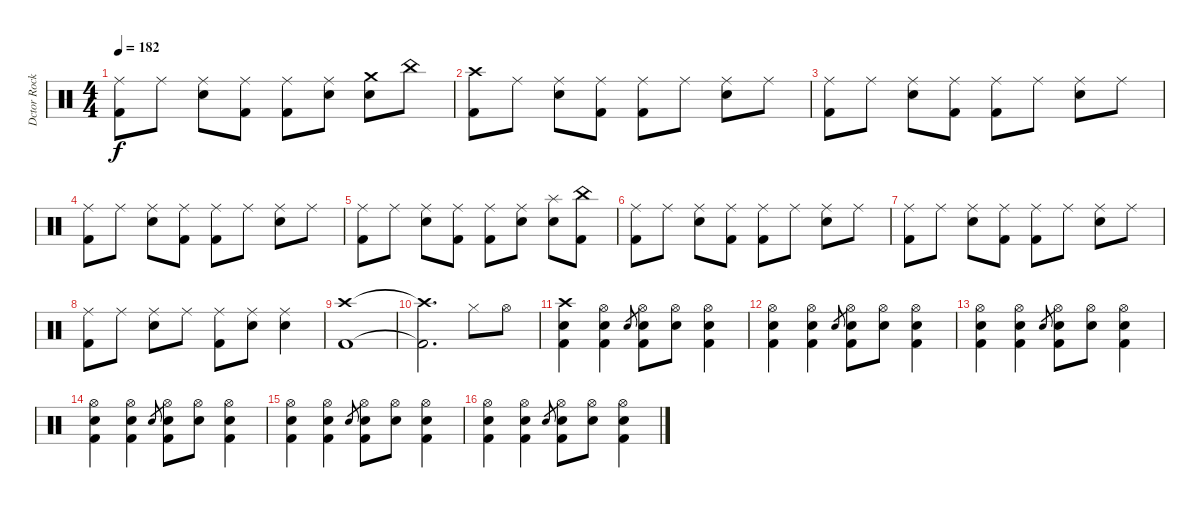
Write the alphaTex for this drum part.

\track ("Dctor Rock" "Dctor Rock") {instrument percussion}
\staff {score}
\articulation defaults
\ts (4 4)
\tempo 182
\clef neutral
\ks c
("Ride (middle)" "Kick (hit) 2").8{dy f} "Ride (middle)".8 ("Ride (middle)" "Snare (hit) 2").8 ("Ride (middle)" "Kick (hit) 2").8 ("Ride (middle)" "Kick (hit) 2").8 ("Ride (middle)" "Snare (hit) 2").8 ("Crash medium (hit)" "Snare (hit) 2").8 "China (hit)".8 |
("Crash high (hit)" "Kick (hit) 2").8 "Ride (middle)".8 ("Ride (middle)" "Snare (hit) 2").8 ("Ride (middle)" "Kick (hit) 2").8 ("Ride (middle)" "Kick (hit) 2").8 "Ride (middle)".8 ("Ride (middle)" "Snare (hit) 2").8 "Ride (middle)".8 |
("Ride (middle)" "Kick (hit) 2").8 "Ride (middle)".8 ("Ride (middle)" "Snare (hit) 2").8 ("Ride (middle)" "Kick (hit) 2").8 ("Ride (middle)" "Kick (hit) 2").8 "Ride (middle)".8 ("Ride (middle)" "Snare (hit) 2").8 "Ride (middle)".8 |
("Ride (middle)" "Kick (hit) 2").8 "Ride (middle)".8 ("Ride (middle)" "Snare (hit) 2").8 ("Ride (middle)" "Kick (hit) 2").8 ("Ride (middle)" "Kick (hit) 2").8 "Ride (middle)".8 ("Ride (middle)" "Snare (hit) 2").8 "Ride (middle)".8 |
("Ride (middle)" "Kick (hit) 2").8 "Ride (middle)".8 ("Ride (middle)" "Snare (hit) 2").8 ("Ride (middle)" "Kick (hit) 2").8 ("Ride (middle)" "Kick (hit) 2").8 ("Ride (middle)" "Snare (hit) 2").8 ("Splash (hit)" "Snare (hit) 2").8 ("China (hit)" "Kick (hit) 2").8 |
("Ride (middle)" "Kick (hit) 2").8 "Ride (middle)".8 ("Ride (middle)" "Snare (hit) 2").8 ("Ride (middle)" "Kick (hit) 2").8 ("Ride (middle)" "Kick (hit) 2").8 "Ride (middle)".8 ("Ride (middle)" "Snare (hit) 2").8 "Ride (middle)".8 |
("Ride (middle)" "Kick (hit) 2").8 "Ride (middle)".8 ("Ride (middle)" "Snare (hit) 2").8 ("Ride (middle)" "Kick (hit) 2").8 ("Ride (middle)" "Kick (hit) 2").8 "Ride (middle)".8 ("Ride (middle)" "Snare (hit) 2").8 "Ride (middle)".8 |
("Ride (middle)" "Kick (hit) 2").8 "Ride (middle)".8 ("Ride (middle)" "Snare (hit) 2").8 "Ride (middle)".8 ("Ride (middle)" "Kick (hit) 2").8 ("Ride (middle)" "Snare (hit) 2").8 ("Ride (middle)" "Snare (hit) 2").4 |
("Crash high (hit)" "Kick (hit) 2").1 |
("Crash high (hit)"{t} "Kick (hit) 2"{t}).2{d} "Hi-Hat (closed)".8 "Hi-Hat (open)".8 |
("Crash high (hit)" "Snare (hit) 2" "Kick (hit) 2").4 ("Hi-Hat (open)" "Snare (hit) 2" "Kick (hit) 2").4 "Snare (hit) 2".8{gr} ("Hi-Hat (open)" "Snare (hit) 2" "Kick (hit) 2").8 ("Hi-Hat (open)" "Snare (hit) 2").8 ("Hi-Hat (open)" "Snare (hit) 2" "Kick (hit) 2").4 |
("Hi-Hat (open)" "Snare (hit) 2" "Kick (hit) 2").4 ("Hi-Hat (open)" "Snare (hit) 2" "Kick (hit) 2").4 "Snare (hit) 2".8{gr} ("Hi-Hat (open)" "Snare (hit) 2" "Kick (hit) 2").8 ("Hi-Hat (open)" "Snare (hit) 2").8 ("Hi-Hat (open)" "Snare (hit) 2" "Kick (hit) 2").4 |
("Hi-Hat (open)" "Snare (hit) 2" "Kick (hit) 2").4 ("Hi-Hat (open)" "Snare (hit) 2" "Kick (hit) 2").4 "Snare (hit) 2".8{gr} ("Hi-Hat (open)" "Snare (hit) 2" "Kick (hit) 2").8 ("Hi-Hat (open)" "Snare (hit) 2").8 ("Hi-Hat (open)" "Snare (hit) 2" "Kick (hit) 2").4 |
("Hi-Hat (open)" "Snare (hit) 2" "Kick (hit) 2").4 ("Hi-Hat (open)" "Snare (hit) 2" "Kick (hit) 2").4 "Snare (hit) 2".8{gr} ("Hi-Hat (open)" "Snare (hit) 2" "Kick (hit) 2").8 ("Hi-Hat (open)" "Snare (hit) 2").8 ("Hi-Hat (open)" "Snare (hit) 2" "Kick (hit) 2").4 |
("Hi-Hat (open)" "Snare (hit) 2" "Kick (hit) 2").4 ("Hi-Hat (open)" "Snare (hit) 2" "Kick (hit) 2").4 "Snare (hit) 2".8{gr} ("Hi-Hat (open)" "Snare (hit) 2" "Kick (hit) 2").8 ("Hi-Hat (open)" "Snare (hit) 2").8 ("Hi-Hat (open)" "Snare (hit) 2" "Kick (hit) 2").4 |
("Hi-Hat (open)" "Snare (hit) 2" "Kick (hit) 2").4 ("Hi-Hat (open)" "Snare (hit) 2" "Kick (hit) 2").4 "Snare (hit) 2".8{gr} ("Hi-Hat (open)" "Snare (hit) 2" "Kick (hit) 2").8 ("Hi-Hat (open)" "Snare (hit) 2").8 ("Hi-Hat (open)" "Snare (hit) 2" "Kick (hit) 2").4
